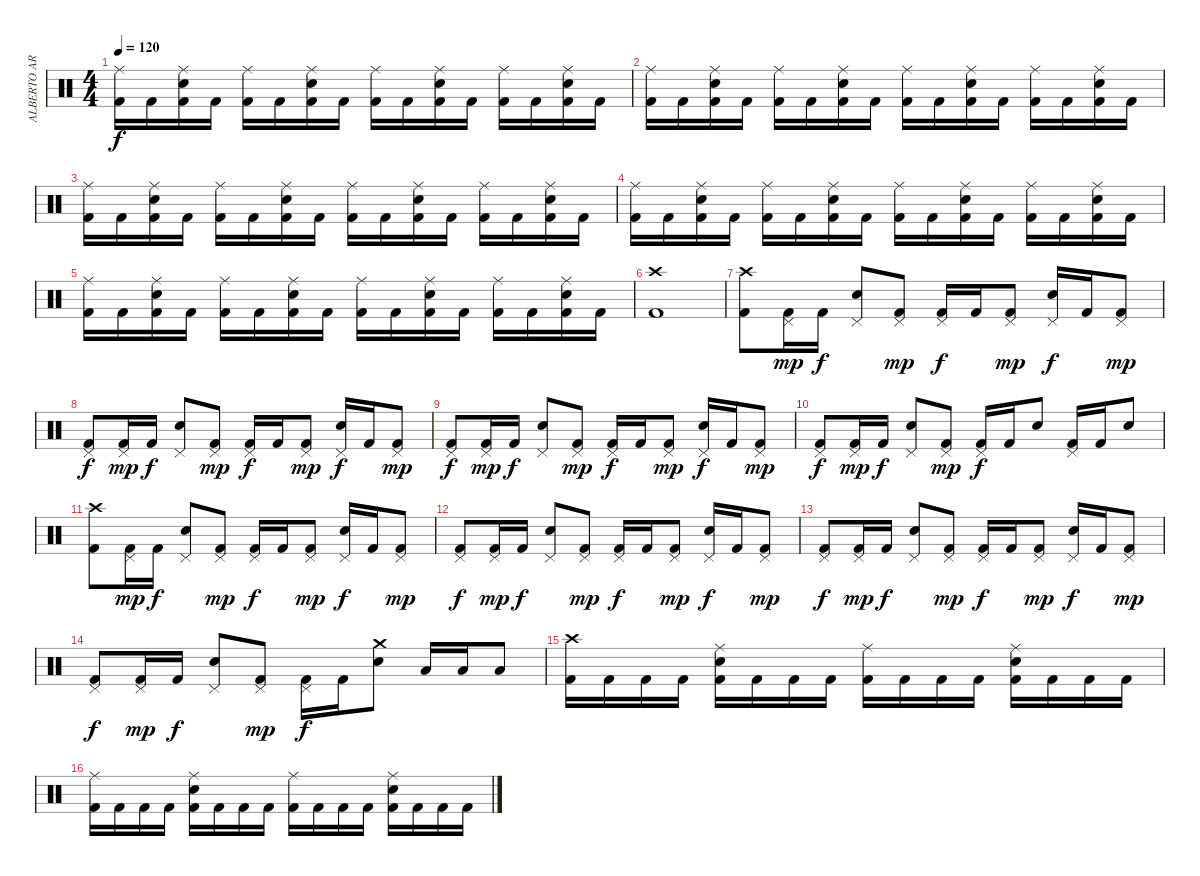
\track ("ALBERTO ARDINES" "ALBERTO AR") {instrument percussion}
\staff {score}
\articulation defaults
\ts (4 4)
\tempo 120
\clef neutral
\ks c
("Ride (middle)" "Kick (hit) 2").16{dy f} "Kick (hit) 2".16 ("Ride (middle)" "Electric Snare (hit)" "Kick (hit) 2").16 "Kick (hit) 2".16 ("Ride (middle)" "Kick (hit) 2").16 "Kick (hit) 2".16 ("Ride (middle)" "Electric Snare (hit)" "Kick (hit) 2").16 "Kick (hit) 2".16 ("Ride (middle)" "Kick (hit) 2").16 "Kick (hit) 2".16 ("Ride (middle)" "Electric Snare (hit)" "Kick (hit) 2").16 "Kick (hit) 2".16 ("Ride (middle)" "Kick (hit) 2").16 "Kick (hit) 2".16 ("Ride (middle)" "Electric Snare (hit)" "Kick (hit) 2").16 "Kick (hit) 2".16 |
("Ride (middle)" "Kick (hit) 2").16 "Kick (hit) 2".16 ("Ride (middle)" "Electric Snare (hit)" "Kick (hit) 2").16 "Kick (hit) 2".16 ("Ride (middle)" "Kick (hit) 2").16 "Kick (hit) 2".16 ("Ride (middle)" "Electric Snare (hit)" "Kick (hit) 2").16 "Kick (hit) 2".16 ("Ride (middle)" "Kick (hit) 2").16 "Kick (hit) 2".16 ("Ride (middle)" "Electric Snare (hit)" "Kick (hit) 2").16 "Kick (hit) 2".16 ("Ride (middle)" "Kick (hit) 2").16 "Kick (hit) 2".16 ("Ride (middle)" "Electric Snare (hit)" "Kick (hit) 2").16 "Kick (hit) 2".16 |
("Ride (middle)" "Kick (hit) 2").16 "Kick (hit) 2".16 ("Ride (middle)" "Electric Snare (hit)" "Kick (hit) 2").16 "Kick (hit) 2".16 ("Ride (middle)" "Kick (hit) 2").16 "Kick (hit) 2".16 ("Ride (middle)" "Electric Snare (hit)" "Kick (hit) 2").16 "Kick (hit) 2".16 ("Ride (middle)" "Kick (hit) 2").16 "Kick (hit) 2".16 ("Ride (middle)" "Electric Snare (hit)" "Kick (hit) 2").16 "Kick (hit) 2".16 ("Ride (middle)" "Kick (hit) 2").16 "Kick (hit) 2".16 ("Ride (middle)" "Electric Snare (hit)" "Kick (hit) 2").16 "Kick (hit) 2".16 |
("Ride (middle)" "Kick (hit) 2").16 "Kick (hit) 2".16 ("Ride (middle)" "Electric Snare (hit)" "Kick (hit) 2").16 "Kick (hit) 2".16 ("Ride (middle)" "Kick (hit) 2").16 "Kick (hit) 2".16 ("Ride (middle)" "Electric Snare (hit)" "Kick (hit) 2").16 "Kick (hit) 2".16 ("Ride (middle)" "Kick (hit) 2").16 "Kick (hit) 2".16 ("Ride (middle)" "Electric Snare (hit)" "Kick (hit) 2").16 "Kick (hit) 2".16 ("Ride (middle)" "Kick (hit) 2").16 "Kick (hit) 2".16 ("Ride (middle)" "Electric Snare (hit)" "Kick (hit) 2").16 "Kick (hit) 2".16 |
("Ride (middle)" "Kick (hit) 2").16 "Kick (hit) 2".16 ("Ride (middle)" "Electric Snare (hit)" "Kick (hit) 2").16 "Kick (hit) 2".16 ("Ride (middle)" "Kick (hit) 2").16 "Kick (hit) 2".16 ("Ride (middle)" "Electric Snare (hit)" "Kick (hit) 2").16 "Kick (hit) 2".16 ("Ride (middle)" "Kick (hit) 2").16 "Kick (hit) 2".16 ("Ride (middle)" "Electric Snare (hit)" "Kick (hit) 2").16 "Kick (hit) 2".16 ("Ride (middle)" "Kick (hit) 2").16 "Kick (hit) 2".16 ("Ride (middle)" "Electric Snare (hit)" "Kick (hit) 2").16 "Kick (hit) 2".16 |
("Crash high (hit)" "Kick (hit) 2").1 |
("Crash high (hit)" "Kick (hit) 2").8 ("Pedal Hi-Hat (hit)" "Kick (hit) 2").16{dy mp} "Kick (hit) 2".16{dy f} ("Pedal Hi-Hat (hit)" "Electric Snare (hit)").8 ("Pedal Hi-Hat (hit)" "Kick (hit) 2").8{dy mp} ("Pedal Hi-Hat (hit)" "Kick (hit) 2").16{dy f} "Kick (hit) 2".16 ("Pedal Hi-Hat (hit)" "Kick (hit) 2").8{dy mp} ("Pedal Hi-Hat (hit)" "Electric Snare (hit)").16{dy f} "Kick (hit) 2".16 ("Pedal Hi-Hat (hit)" "Kick (hit) 2").8{dy mp} |
("Pedal Hi-Hat (hit)" "Kick (hit) 2").8{dy f} ("Pedal Hi-Hat (hit)" "Kick (hit) 2").16{dy mp} "Kick (hit) 2".16{dy f} ("Pedal Hi-Hat (hit)" "Electric Snare (hit)").8 ("Pedal Hi-Hat (hit)" "Kick (hit) 2").8{dy mp} ("Pedal Hi-Hat (hit)" "Kick (hit) 2").16{dy f} "Kick (hit) 2".16 ("Pedal Hi-Hat (hit)" "Kick (hit) 2").8{dy mp} ("Pedal Hi-Hat (hit)" "Electric Snare (hit)").16{dy f} "Kick (hit) 2".16 ("Pedal Hi-Hat (hit)" "Kick (hit) 2").8{dy mp} |
("Pedal Hi-Hat (hit)" "Kick (hit) 2").8{dy f} ("Pedal Hi-Hat (hit)" "Kick (hit) 2").16{dy mp} "Kick (hit) 2".16{dy f} ("Pedal Hi-Hat (hit)" "Electric Snare (hit)").8 ("Pedal Hi-Hat (hit)" "Kick (hit) 2").8{dy mp} ("Pedal Hi-Hat (hit)" "Kick (hit) 2").16{dy f} "Kick (hit) 2".16 ("Pedal Hi-Hat (hit)" "Kick (hit) 2").8{dy mp} ("Pedal Hi-Hat (hit)" "Electric Snare (hit)").16{dy f} "Kick (hit) 2".16 ("Pedal Hi-Hat (hit)" "Kick (hit) 2").8{dy mp} |
("Pedal Hi-Hat (hit)" "Kick (hit) 2").8{dy f} ("Pedal Hi-Hat (hit)" "Kick (hit) 2").16{dy mp} "Kick (hit) 2".16{dy f} ("Pedal Hi-Hat (hit)" "Electric Snare (hit)").8 ("Pedal Hi-Hat (hit)" "Kick (hit) 2").8{dy mp} ("Pedal Hi-Hat (hit)" "Kick (hit) 2").16{dy f} "Kick (hit) 2".16 "Electric Snare (hit)".8 ("Pedal Hi-Hat (hit)" "Kick (hit) 2").16 "Kick (hit) 2".16 "Electric Snare (hit)".8 |
("Crash high (hit)" "Kick (hit) 2").8 ("Pedal Hi-Hat (hit)" "Kick (hit) 2").16{dy mp} "Kick (hit) 2".16{dy f} ("Pedal Hi-Hat (hit)" "Electric Snare (hit)").8 ("Pedal Hi-Hat (hit)" "Kick (hit) 2").8{dy mp} ("Pedal Hi-Hat (hit)" "Kick (hit) 2").16{dy f} "Kick (hit) 2".16 ("Pedal Hi-Hat (hit)" "Kick (hit) 2").8{dy mp} ("Pedal Hi-Hat (hit)" "Electric Snare (hit)").16{dy f} "Kick (hit) 2".16 ("Pedal Hi-Hat (hit)" "Kick (hit) 2").8{dy mp} |
("Pedal Hi-Hat (hit)" "Kick (hit) 2").8{dy f} ("Pedal Hi-Hat (hit)" "Kick (hit) 2").16{dy mp} "Kick (hit) 2".16{dy f} ("Pedal Hi-Hat (hit)" "Electric Snare (hit)").8 ("Pedal Hi-Hat (hit)" "Kick (hit) 2").8{dy mp} ("Pedal Hi-Hat (hit)" "Kick (hit) 2").16{dy f} "Kick (hit) 2".16 ("Pedal Hi-Hat (hit)" "Kick (hit) 2").8{dy mp} ("Pedal Hi-Hat (hit)" "Electric Snare (hit)").16{dy f} "Kick (hit) 2".16 ("Pedal Hi-Hat (hit)" "Kick (hit) 2").8{dy mp} |
("Pedal Hi-Hat (hit)" "Kick (hit) 2").8{dy f} ("Pedal Hi-Hat (hit)" "Kick (hit) 2").16{dy mp} "Kick (hit) 2".16{dy f} ("Pedal Hi-Hat (hit)" "Electric Snare (hit)").8 ("Pedal Hi-Hat (hit)" "Kick (hit) 2").8{dy mp} ("Pedal Hi-Hat (hit)" "Kick (hit) 2").16{dy f} "Kick (hit) 2".16 ("Pedal Hi-Hat (hit)" "Kick (hit) 2").8{dy mp} ("Pedal Hi-Hat (hit)" "Electric Snare (hit)").16{dy f} "Kick (hit) 2".16 ("Pedal Hi-Hat (hit)" "Kick (hit) 2").8{dy mp} |
("Pedal Hi-Hat (hit)" "Kick (hit) 2").8{dy f} ("Pedal Hi-Hat (hit)" "Kick (hit) 2").16{dy mp} "Kick (hit) 2".16{dy f} ("Pedal Hi-Hat (hit)" "Electric Snare (hit)").8 ("Pedal Hi-Hat (hit)" "Kick (hit) 2").8{dy mp} ("Pedal Hi-Hat (hit)" "Kick (hit) 2").16{dy f} "Kick (hit) 2".16 ("Crash medium (hit)" "Electric Snare (hit)").8 "Low Tom (hit)".16 "Low Tom (hit)".16 "Low Tom (hit)".8 |
("Crash high (hit)" "Kick (hit) 2").16 "Kick (hit) 2".16 "Kick (hit) 2".16 "Kick (hit) 2".16 ("Ride (middle)" "Electric Snare (hit)" "Kick (hit) 2").16 "Kick (hit) 2".16 "Kick (hit) 2".16 "Kick (hit) 2".16 ("Ride (middle)" "Kick (hit) 2").16 "Kick (hit) 2".16 "Kick (hit) 2".16 "Kick (hit) 2".16 ("Ride (middle)" "Electric Snare (hit)" "Kick (hit) 2").16 "Kick (hit) 2".16 "Kick (hit) 2".16 "Kick (hit) 2".16 |
("Ride (middle)" "Kick (hit) 2").16 "Kick (hit) 2".16 "Kick (hit) 2".16 "Kick (hit) 2".16 ("Ride (middle)" "Electric Snare (hit)" "Kick (hit) 2").16 "Kick (hit) 2".16 "Kick (hit) 2".16 "Kick (hit) 2".16 ("Ride (middle)" "Kick (hit) 2").16 "Kick (hit) 2".16 "Kick (hit) 2".16 "Kick (hit) 2".16 ("Ride (middle)" "Electric Snare (hit)" "Kick (hit) 2").16 "Kick (hit) 2".16 "Kick (hit) 2".16 "Kick (hit) 2".16
